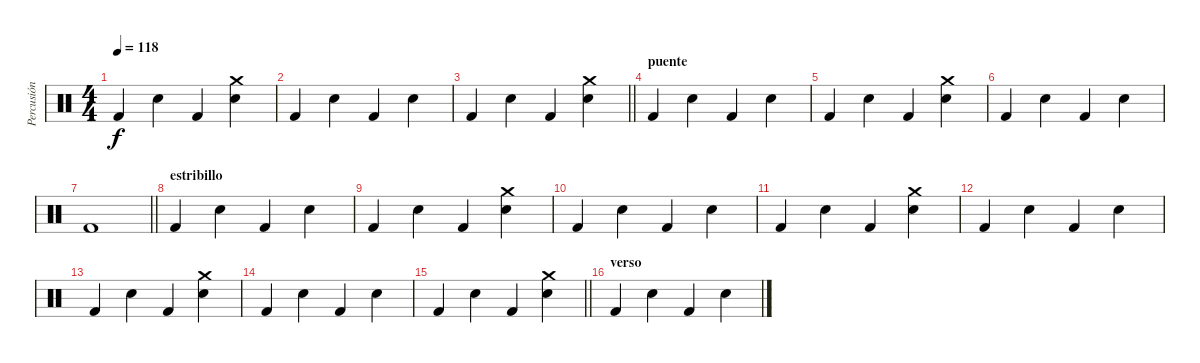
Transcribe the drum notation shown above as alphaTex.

\track ("Percusión" "Percusión") {instrument percussion}
\staff {score}
\articulation defaults
\ts (4 4)
\tempo 118
\clef neutral
\ks c "Kick (hit) 2".4{dy f} "Hand Clap (hit)".4 "Kick (hit) 2".4
("Hand Clap (hit)" "Crash medium (hit)").4 |
"Kick (hit) 2".4 "Hand Clap (hit)".4 "Kick (hit) 2".4 "Hand Clap (hit)".4 |
\barLineRight lightlight "Kick (hit) 2".4 "Hand Clap (hit)".4 "Kick (hit) 2".4
("Hand Clap (hit)" "Crash medium (hit)").4 |
\section ("" "puente")
"Kick (hit) 2".4 "Hand Clap (hit)".4 "Kick (hit) 2".4 "Hand Clap (hit)".4 |
"Kick (hit) 2".4 "Hand Clap (hit)".4 "Kick (hit) 2".4 ("Hand Clap (hit)" "Crash medium (hit)").4 |
"Kick (hit) 2".4 "Hand Clap (hit)".4 "Kick (hit) 2".4 "Hand Clap (hit)".4 |
\barLineRight lightlight "Kick (hit) 2".1
|
\section ("" "estribillo")
"Kick (hit) 2".4 "Hand Clap (hit)".4 "Kick (hit) 2".4 "Hand Clap (hit)".4 |
"Kick (hit) 2".4 "Hand Clap (hit)".4 "Kick (hit) 2".4 ("Hand Clap (hit)" "Crash medium (hit)").4 |
"Kick (hit) 2".4 "Hand Clap (hit)".4 "Kick (hit) 2".4 "Hand Clap (hit)".4 |
"Kick (hit) 2".4 "Hand Clap (hit)".4 "Kick (hit) 2".4 ("Hand Clap (hit)" "Crash medium (hit)").4 |
"Kick (hit) 2".4 "Hand Clap (hit)".4 "Kick (hit) 2".4 "Hand Clap (hit)".4 |
"Kick (hit) 2".4 "Hand Clap (hit)".4 "Kick (hit) 2".4 ("Hand Clap (hit)" "Crash medium (hit)").4 |
"Kick (hit) 2".4 "Hand Clap (hit)".4 "Kick (hit) 2".4 "Hand Clap (hit)".4 |
\barLineRight lightlight "Kick (hit) 2".4 "Hand Clap (hit)".4 "Kick (hit) 2".4
("Hand Clap (hit)" "Crash medium (hit)").4 |
\section ("" "verso")
"Kick (hit) 2".4 "Hand Clap (hit)".4 "Kick (hit) 2".4 "Hand Clap (hit)".4
